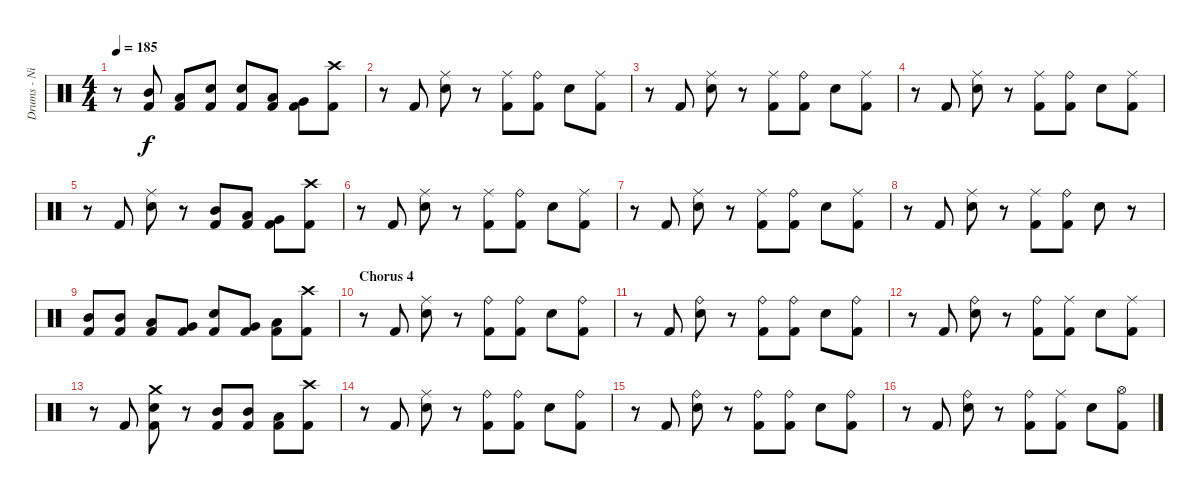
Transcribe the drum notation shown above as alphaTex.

\track ("Drums - Nicko" "Drums - Ni") {instrument percussion}
\staff {score}
\articulation defaults
\ts (4 4)
\tempo 185
\clef neutral
\ks c
r.8{dy f} ("Mid Tom (hit)" "Kick (hit) 2").8 ("Low Tom (hit)" "Kick (hit) 2").8 ("Snare (hit) 2" "Kick (hit) 2").8 ("Snare (hit) 2" "Kick (hit) 2").8 ("Low Tom (hit)" "Kick (hit) 2").8 ("Very Low Tom (hit)" "Kick (hit) 2").8 ("Crash high (hit)" "Kick (hit) 2").8 |
\section ("" "")
r.8 "Kick (hit) 2".8 ("Ride (middle)" "Snare (hit) 2").8 r.8 ("Ride (middle)" "Kick (hit) 2").8 ("Ride (bell)" "Kick (hit) 2").8 "Snare (hit) 2".8 ("Ride (middle)" "Kick (hit) 2").8 |
r.8 "Kick (hit) 2".8 ("Ride (middle)" "Snare (hit) 2").8 r.8 ("Ride (middle)" "Kick (hit) 2").8 ("Ride (bell)" "Kick (hit) 2").8 "Snare (hit) 2".8 ("Ride (middle)" "Kick (hit) 2").8 |
r.8 "Kick (hit) 2".8 ("Ride (middle)" "Snare (hit) 2").8 r.8 ("Ride (middle)" "Kick (hit) 2").8 ("Ride (bell)" "Kick (hit) 2").8 "Snare (hit) 2".8 ("Ride (middle)" "Kick (hit) 2").8 |
r.8 "Kick (hit) 2".8 ("Ride (middle)" "Snare (hit) 2").8 r.8 ("Mid Tom (hit)" "Kick (hit) 2").8 ("Low Tom (hit)" "Kick (hit) 2").8 ("Very Low Tom (hit)" "Kick (hit) 2").8 ("Crash high (hit)" "Kick (hit) 2").8 |
r.8 "Kick (hit) 2".8 ("Ride (middle)" "Snare (hit) 2").8 r.8 ("Ride (middle)" "Kick (hit) 2").8 ("Ride (bell)" "Kick (hit) 2").8 "Snare (hit) 2".8 ("Ride (middle)" "Kick (hit) 2").8 |
r.8 "Kick (hit) 2".8 ("Ride (middle)" "Snare (hit) 2").8 r.8 ("Ride (middle)" "Kick (hit) 2").8 ("Ride (bell)" "Kick (hit) 2").8 "Snare (hit) 2".8 ("Ride (middle)" "Kick (hit) 2").8 |
r.8 "Kick (hit) 2".8 ("Ride (middle)" "Snare (hit) 2").8 r.8 ("Ride (middle)" "Kick (hit) 2").8 ("Ride (bell)" "Kick (hit) 2").8 "Snare (hit) 2".8 r.8 |
("Mid Tom (hit)" "Kick (hit) 2").8 ("Mid Tom (hit)" "Kick (hit) 2").8 ("Low Tom (hit)" "Kick (hit) 2").8 ("Very Low Tom (hit)" "Kick (hit) 2").8 ("Snare (hit) 2" "Kick (hit) 2").8 ("Very Low Tom (hit)" "Kick (hit) 2").8 ("Low Floor Tom (hit)" "Kick (hit) 2").8 ("Crash high (hit)" "Kick (hit) 2").8 |
\section ("" "Chorus 4")
r.8 "Kick (hit) 2".8 ("Ride (middle)" "Snare (hit) 2").8 r.8 ("Ride (bell)" "Kick (hit) 2").8 ("Ride (bell)" "Kick (hit) 2").8 "Snare (hit) 2".8 ("Ride (bell)" "Kick (hit) 2").8 |
r.8 "Kick (hit) 2".8 ("Ride (bell)" "Snare (hit) 2").8 r.8 ("Ride (bell)" "Kick (hit) 2").8 ("Ride (bell)" "Kick (hit) 2").8 "Snare (hit) 2".8 ("Ride (bell)" "Kick (hit) 2").8 |
r.8 "Kick (hit) 2".8 ("Ride (bell)" "Snare (hit) 2").8 r.8 ("Ride (bell)" "Kick (hit) 2").8 ("Ride (middle)" "Kick (hit) 2").8 "Snare (hit) 2".8 ("Ride (middle)" "Kick (hit) 2").8 |
r.8 "Kick (hit) 2".8 ("Crash medium (hit)" "Snare (hit) 2" "Kick (hit) 2").8 r.8 ("Mid Tom (hit)" "Kick (hit) 2").8 ("Mid Tom (hit)" "Kick (hit) 2").8 ("Low Tom (hit)" "Kick (hit) 2").8 ("Crash high (hit)" "Kick (hit) 2").8 |
r.8 "Kick (hit) 2".8 ("Ride (middle)" "Snare (hit) 2").8 r.8 ("Ride (bell)" "Kick (hit) 2").8 ("Ride (bell)" "Kick (hit) 2").8 "Snare (hit) 2".8 ("Ride (bell)" "Kick (hit) 2").8 |
r.8 "Kick (hit) 2".8 ("Ride (bell)" "Snare (hit) 2").8 r.8 ("Ride (bell)" "Kick (hit) 2").8 ("Ride (bell)" "Kick (hit) 2").8 "Snare (hit) 2".8 ("Ride (bell)" "Kick (hit) 2").8 |
r.8 "Kick (hit) 2".8 ("Ride (bell)" "Snare (hit) 2").8 r.8 ("Ride (bell)" "Kick (hit) 2").8 ("Ride (middle)" "Kick (hit) 2").8 "Snare (hit) 2".8 ("Hi-Hat (open)" "Kick (hit) 2").8
